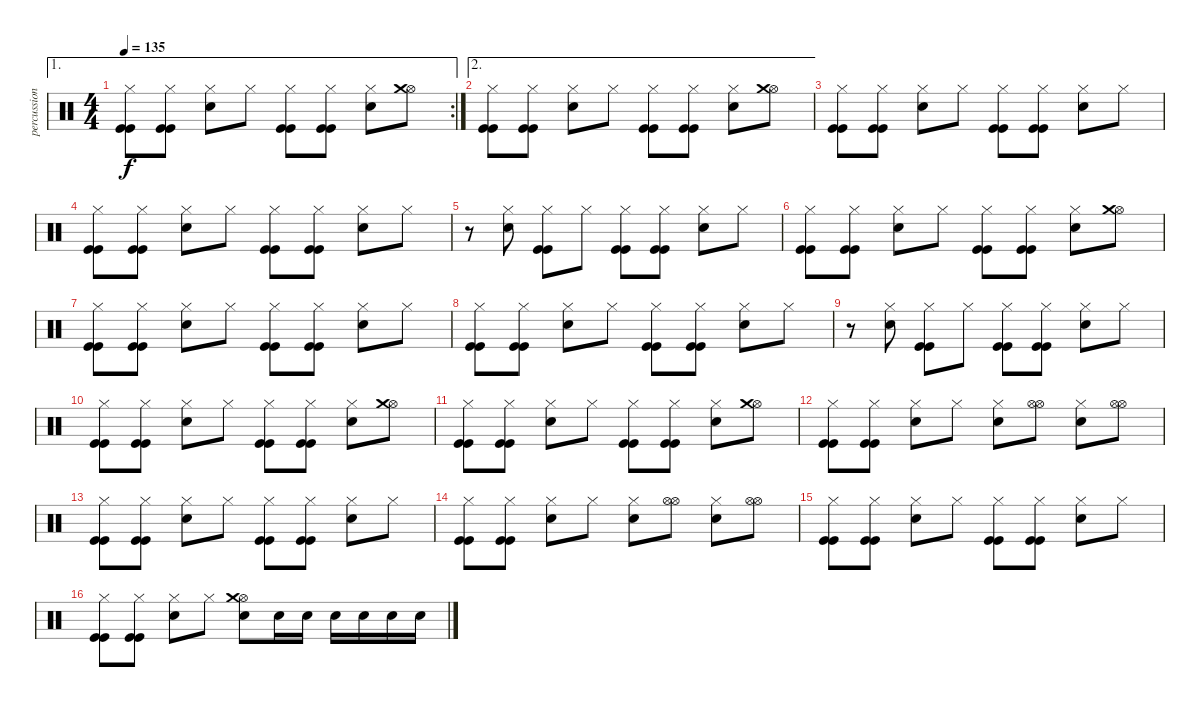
\track ("percussions" "percussion") {instrument percussion}
\staff {score}
\articulation defaults
\ae 1
\rc 2
\ts (4 4)
\tempo 135
\clef neutral
\ks c
("Hi-Hat (closed)" "Kick (hit)" "Kick (hit)").8{dy f} ("Hi-Hat (closed)" "Kick (hit)" "Kick (hit)").8 ("Hi-Hat (closed)" "Electric Snare (hit)").8 "Hi-Hat (closed)".8 ("Hi-Hat (closed)" "Kick (hit)" "Kick (hit)").8 ("Hi-Hat (closed)" "Kick (hit)" "Kick (hit)").8 ("Hi-Hat (closed)" "Electric Snare (hit)").8 ("Hi-Hat (open)" "Crash medium (hit)").8 |
\ae 2
("Hi-Hat (closed)" "Kick (hit)" "Kick (hit)").8 ("Hi-Hat (closed)" "Kick (hit)" "Kick (hit)").8 ("Hi-Hat (closed)" "Electric Snare (hit)").8 "Hi-Hat (closed)".8 ("Hi-Hat (closed)" "Kick (hit)" "Kick (hit)").8 ("Hi-Hat (closed)" "Kick (hit)" "Kick (hit)").8 ("Hi-Hat (closed)" "Electric Snare (hit)").8 ("Hi-Hat (open)" "Crash medium (hit)").8 |
("Hi-Hat (closed)" "Kick (hit)" "Kick (hit)").8 ("Hi-Hat (closed)" "Kick (hit)" "Kick (hit)").8 ("Hi-Hat (closed)" "Electric Snare (hit)").8 "Hi-Hat (closed)".8 ("Hi-Hat (closed)" "Kick (hit)" "Kick (hit)").8 ("Hi-Hat (closed)" "Kick (hit)" "Kick (hit)").8 ("Hi-Hat (closed)" "Electric Snare (hit)").8 "Hi-Hat (closed)".8 |
("Hi-Hat (closed)" "Kick (hit)" "Kick (hit)").8 ("Hi-Hat (closed)" "Kick (hit)" "Kick (hit)").8 ("Hi-Hat (closed)" "Electric Snare (hit)").8 "Hi-Hat (closed)".8 ("Hi-Hat (closed)" "Kick (hit)" "Kick (hit)").8 ("Hi-Hat (closed)" "Kick (hit)" "Kick (hit)").8 ("Hi-Hat (closed)" "Electric Snare (hit)").8 "Hi-Hat (closed)".8 |
r.8 ("Hi-Hat (closed)" "Electric Snare (hit)").8 ("Hi-Hat (closed)" "Kick (hit)" "Kick (hit)").8 "Hi-Hat (closed)".8 ("Hi-Hat (closed)" "Kick (hit)" "Kick (hit)").8 ("Hi-Hat (closed)" "Kick (hit)" "Kick (hit)").8 ("Hi-Hat (closed)" "Electric Snare (hit)").8 "Hi-Hat (closed)".8 |
("Hi-Hat (closed)" "Kick (hit)" "Kick (hit)").8 ("Hi-Hat (closed)" "Kick (hit)" "Kick (hit)").8 ("Hi-Hat (closed)" "Electric Snare (hit)").8 "Hi-Hat (closed)".8 ("Hi-Hat (closed)" "Kick (hit)" "Kick (hit)").8 ("Hi-Hat (closed)" "Kick (hit)" "Kick (hit)").8 ("Hi-Hat (closed)" "Electric Snare (hit)").8 ("Hi-Hat (open)" "Crash medium (hit)").8 |
("Hi-Hat (closed)" "Kick (hit)" "Kick (hit)").8 ("Hi-Hat (closed)" "Kick (hit)" "Kick (hit)").8 ("Hi-Hat (closed)" "Electric Snare (hit)").8 "Hi-Hat (closed)".8 ("Hi-Hat (closed)" "Kick (hit)" "Kick (hit)").8 ("Hi-Hat (closed)" "Kick (hit)" "Kick (hit)").8 ("Hi-Hat (closed)" "Electric Snare (hit)").8 "Hi-Hat (closed)".8 |
("Hi-Hat (closed)" "Kick (hit)" "Kick (hit)").8 ("Hi-Hat (closed)" "Kick (hit)" "Kick (hit)").8 ("Hi-Hat (closed)" "Electric Snare (hit)").8 "Hi-Hat (closed)".8 ("Hi-Hat (closed)" "Kick (hit)" "Kick (hit)").8 ("Hi-Hat (closed)" "Kick (hit)" "Kick (hit)").8 ("Hi-Hat (closed)" "Electric Snare (hit)").8 "Hi-Hat (closed)".8 |
r.8 ("Hi-Hat (closed)" "Electric Snare (hit)").8 ("Hi-Hat (closed)" "Kick (hit)" "Kick (hit)").8 "Hi-Hat (closed)".8 ("Hi-Hat (closed)" "Kick (hit)" "Kick (hit)").8 ("Hi-Hat (closed)" "Kick (hit)" "Kick (hit)").8 ("Hi-Hat (closed)" "Electric Snare (hit)").8 "Hi-Hat (closed)".8 |
("Hi-Hat (closed)" "Kick (hit)" "Kick (hit)").8 ("Hi-Hat (closed)" "Kick (hit)" "Kick (hit)").8 ("Hi-Hat (closed)" "Electric Snare (hit)").8 "Hi-Hat (closed)".8 ("Hi-Hat (closed)" "Kick (hit)" "Kick (hit)").8 ("Hi-Hat (closed)" "Kick (hit)" "Kick (hit)").8 ("Hi-Hat (closed)" "Electric Snare (hit)").8 ("Hi-Hat (open)" "Crash medium (hit)").8 |
("Hi-Hat (closed)" "Kick (hit)" "Kick (hit)").8 ("Hi-Hat (closed)" "Kick (hit)" "Kick (hit)").8 ("Hi-Hat (closed)" "Electric Snare (hit)").8 "Hi-Hat (closed)".8 ("Hi-Hat (closed)" "Kick (hit)" "Kick (hit)").8 ("Hi-Hat (closed)" "Kick (hit)" "Kick (hit)").8 ("Hi-Hat (closed)" "Electric Snare (hit)").8 ("Hi-Hat (open)" "Crash medium (hit)").8 |
("Hi-Hat (closed)" "Kick (hit)" "Kick (hit)").8 ("Hi-Hat (closed)" "Kick (hit)" "Kick (hit)").8 ("Hi-Hat (closed)" "Electric Snare (hit)").8 "Hi-Hat (closed)".8 ("Hi-Hat (closed)" "Electric Snare (hit)").8 ("Hi-Hat (open)" "Hi-Hat (open)").8 ("Hi-Hat (closed)" "Electric Snare (hit)").8 ("Hi-Hat (open)" "Hi-Hat (open)").8 |
("Hi-Hat (closed)" "Kick (hit)" "Kick (hit)").8 ("Hi-Hat (closed)" "Kick (hit)" "Kick (hit)").8 ("Hi-Hat (closed)" "Electric Snare (hit)").8 "Hi-Hat (closed)".8 ("Hi-Hat (closed)" "Kick (hit)" "Kick (hit)").8 ("Hi-Hat (closed)" "Kick (hit)" "Kick (hit)").8 ("Hi-Hat (closed)" "Electric Snare (hit)").8 "Hi-Hat (closed)".8 |
("Hi-Hat (closed)" "Kick (hit)" "Kick (hit)").8 ("Hi-Hat (closed)" "Kick (hit)" "Kick (hit)").8 ("Hi-Hat (closed)" "Electric Snare (hit)").8 "Hi-Hat (closed)".8 ("Hi-Hat (closed)" "Electric Snare (hit)").8 ("Hi-Hat (open)" "Hi-Hat (open)").8 ("Hi-Hat (closed)" "Electric Snare (hit)").8 ("Hi-Hat (open)" "Hi-Hat (open)").8 |
("Hi-Hat (closed)" "Kick (hit)" "Kick (hit)").8 ("Hi-Hat (closed)" "Kick (hit)" "Kick (hit)").8 ("Hi-Hat (closed)" "Electric Snare (hit)").8 "Hi-Hat (closed)".8 ("Hi-Hat (closed)" "Kick (hit)" "Kick (hit)").8 ("Hi-Hat (closed)" "Kick (hit)" "Kick (hit)").8 ("Hi-Hat (closed)" "Electric Snare (hit)").8 "Hi-Hat (closed)".8 |
("Hi-Hat (closed)" "Kick (hit)" "Kick (hit)").8 ("Hi-Hat (closed)" "Kick (hit)" "Kick (hit)").8 ("Hi-Hat (closed)" "Electric Snare (hit)").8 "Hi-Hat (closed)".8 ("Hi-Hat (open)" "Crash medium (hit)" "Snare (hit) 2").8 "Electric Snare (hit)".16 "Electric Snare (hit)".16 "Electric Snare (hit)".16 "Electric Snare (hit)".16 "Electric Snare (hit)".16 "Electric Snare (hit)".16
